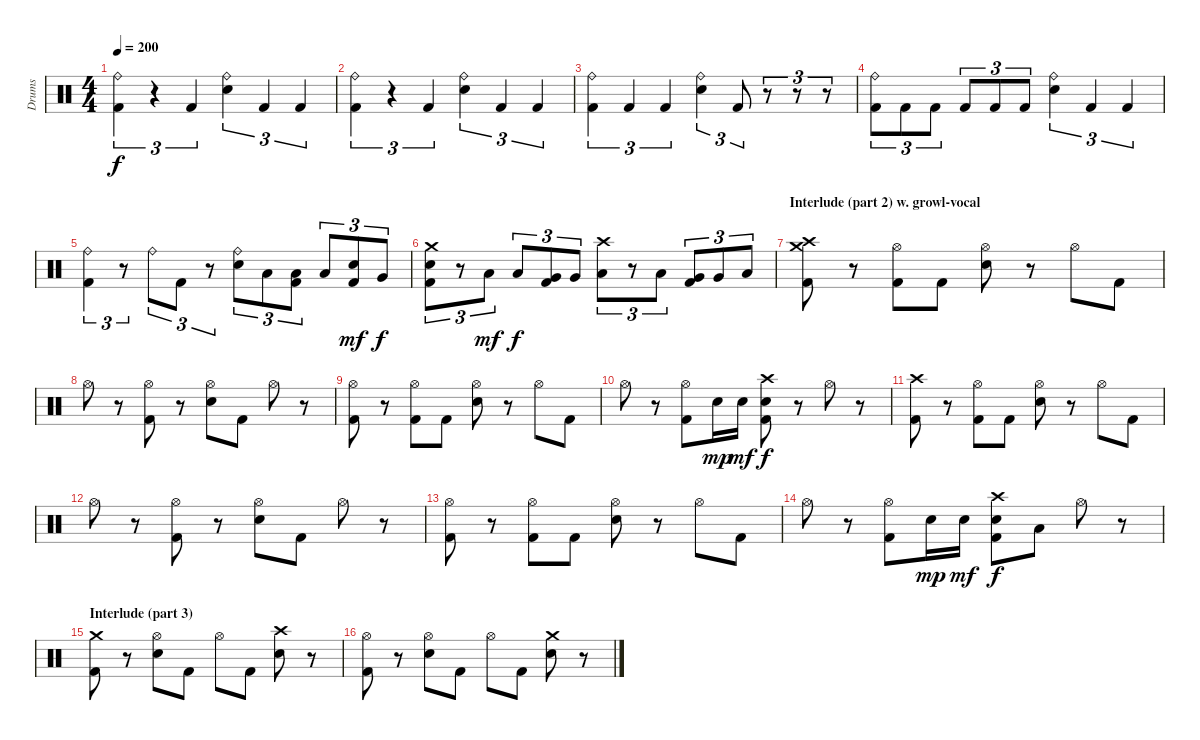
\track ("Drums" "Drums") {instrument percussion}
\staff {score}
\articulation defaults
\ts (4 4)
\tempo 200
\clef neutral
\ks c
("Kick (hit) 2" "Ride (bell)").4{tu (3 2) dy f} r.4{tu (3 2)} "Kick (hit) 2".4{tu (3 2)} ("Electric Snare (hit)" "Ride (bell)").4{tu (3 2)} "Kick (hit) 2".4{tu (3 2)} "Kick (hit) 2".4{tu (3 2)} |
("Kick (hit) 2" "Ride (bell)").4{tu (3 2)} r.4{tu (3 2)} "Kick (hit) 2".4{tu (3 2)} ("Electric Snare (hit)" "Ride (bell)").4{tu (3 2)} "Kick (hit) 2".4{tu (3 2)} "Kick (hit) 2".4{tu (3 2)} |
("Kick (hit) 2" "Ride (bell)").4{tu (3 2)} "Kick (hit) 2".4{tu (3 2)} "Kick (hit) 2".4{tu (3 2)} ("Electric Snare (hit)" "Ride (bell)").4{tu (3 2)} "Kick (hit) 2".8{tu (3 2)} r.8{tu (3 2)} r.8{tu (3 2)} r.8{tu (3 2)} |
("Kick (hit) 2" "Ride (bell)").8{tu (3 2)} "Kick (hit) 2".8{tu (3 2)} "Kick (hit) 2".8{tu (3 2)} "Kick (hit) 2".8{tu (3 2)} "Kick (hit) 2".8{tu (3 2)} "Kick (hit) 2".8{tu (3 2)} ("Electric Snare (hit)" "Ride (bell)").4{tu (3 2)} "Kick (hit) 2".4{tu (3 2)} "Kick (hit) 2".4{tu (3 2)} |
("Kick (hit) 2" "Ride (bell)").4{tu (3 2)} r.8{tu (3 2)} "Ride (bell)".8{tu (3 2)} "Kick (hit) 2".8{tu (3 2)} r.8{tu (3 2)} ("Electric Snare (hit)" "Ride (bell)").8{tu (3 2)} "Low Tom (hit)".8{tu (3 2)} ("Kick (hit) 2" "Low Tom (hit)").8{tu (3 2)} "Low Tom (hit)".8{tu (3 2)} ("Kick (hit) 2" "Electric Snare (hit)").8{tu (3 2) dy mf} "Very Low Tom (hit)".8{tu (3 2) dy f} |
("Kick (hit) 2" "Electric Snare (hit)" "Crash medium (hit)").8{tu (3 2)} r.8{tu (3 2)} "Low Tom (hit)".8{tu (3 2) dy mf} "Low Tom (hit)".8{tu (3 2) dy f} ("Kick (hit) 2" "Very Low Tom (hit)").8{tu (3 2)} "Very Low Tom (hit)".8{tu (3 2)} ("Low Floor Tom (hit)" "Crash high (hit)").8{tu (3 2)} r.8{tu (3 2)} "Low Tom (hit)".8{tu (3 2)} ("Kick (hit) 2" "Very Low Tom (hit)").8{tu (3 2)} "Very Low Tom (hit)".8{tu (3 2)} "Low Floor Tom (hit)".8{tu (3 2)} |
\section ("" "Interlude (part 2) w. growl-vocal")
("Kick (hit) 2" "Crash high (hit)" "Crash medium (hit)").8 r.8 ("Kick (hit) 2" "Hi-Hat (open)").8 "Kick (hit) 2".8 ("Electric Snare (hit)" "Hi-Hat (open)").8 r.8 "Hi-Hat (open)".8 "Kick (hit) 2".8 |
"Hi-Hat (open)".8 r.8 ("Kick (hit) 2" "Hi-Hat (open)").8 r.8 ("Electric Snare (hit)" "Hi-Hat (open)").8 "Kick (hit) 2".8 "Hi-Hat (open)".8 r.8 |
("Kick (hit) 2" "Hi-Hat (open)").8 r.8 ("Kick (hit) 2" "Hi-Hat (open)").8 "Kick (hit) 2".8 ("Electric Snare (hit)" "Hi-Hat (open)").8 r.8 "Hi-Hat (open)".8 "Kick (hit) 2".8 |
"Hi-Hat (open)".8 r.8 ("Kick (hit) 2" "Hi-Hat (open)").8 "Electric Snare (hit)".16{dy mp} "Electric Snare (hit)".16{dy mf} ("Kick (hit) 2" "Electric Snare (hit)" "Crash high (hit)").8{dy f} r.8 "Hi-Hat (open)".8 r.8 |
("Kick (hit) 2" "Crash high (hit)").8 r.8 ("Kick (hit) 2" "Hi-Hat (open)").8 "Kick (hit) 2".8 ("Electric Snare (hit)" "Hi-Hat (open)").8 r.8 "Hi-Hat (open)".8 "Kick (hit) 2".8 |
"Hi-Hat (open)".8 r.8 ("Kick (hit) 2" "Hi-Hat (open)").8 r.8 ("Electric Snare (hit)" "Hi-Hat (open)").8 "Kick (hit) 2".8 "Hi-Hat (open)".8 r.8 |
("Kick (hit) 2" "Hi-Hat (open)").8 r.8 ("Kick (hit) 2" "Hi-Hat (open)").8 "Kick (hit) 2".8 ("Electric Snare (hit)" "Hi-Hat (open)").8 r.8 "Hi-Hat (open)".8 "Kick (hit) 2".8 |
"Hi-Hat (open)".8 r.8 ("Kick (hit) 2" "Hi-Hat (open)").8 "Electric Snare (hit)".16{dy mp} "Electric Snare (hit)".16{dy mf} ("Kick (hit) 2" "Electric Snare (hit)" "Crash high (hit)").8{dy f} "Low Tom (hit)".8 "Hi-Hat (open)".8 r.8 |
\section ("" "Interlude (part 3)")
("Kick (hit) 2" "Crash medium (hit)").8 r.8 ("Electric Snare (hit)" "Hi-Hat (open)").8 "Kick (hit) 2".8 "Hi-Hat (open)".8 "Kick (hit) 2".8 ("Electric Snare (hit)" "Crash high (hit)").8 r.8 |
("Kick (hit) 2" "Hi-Hat (open)").8 r.8 ("Electric Snare (hit)" "Hi-Hat (open)").8 "Kick (hit) 2".8 "Hi-Hat (open)".8 "Kick (hit) 2".8 ("Electric Snare (hit)" "Crash medium (hit)").8 r.8
